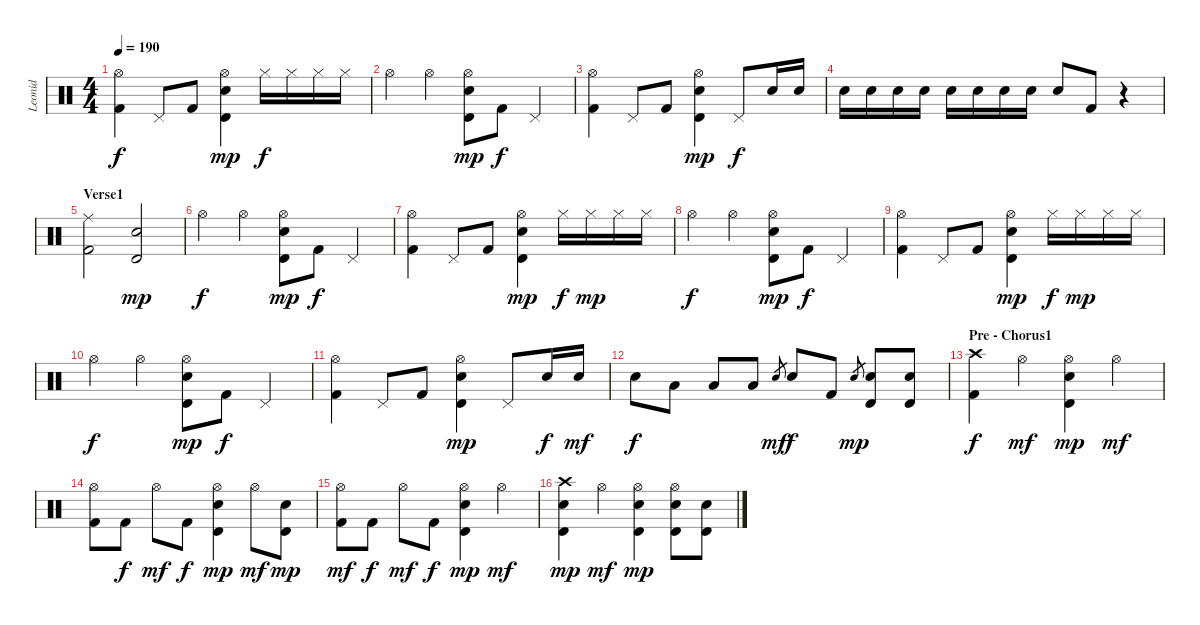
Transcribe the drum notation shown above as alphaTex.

\track ("Leonid" "Leonid") {instrument percussion}
\staff {score}
\articulation defaults
\ts (4 4)
\tempo 190
\clef neutral
\ks c
("Hi-Hat (open)" "Kick (hit) 2").4{dy f} "Pedal Hi-Hat (hit)".8 "Kick (hit) 2".8 ("Hi-Hat (open)" "Timbale high (hit)" "Electric Snare (hit)").4{dy mp} "Hi-Hat (closed)".16{dy f} "Hi-Hat (closed)".16 "Hi-Hat (closed)".16 "Hi-Hat (closed)".16 |
"Hi-Hat (open)".4 "Hi-Hat (open)".4 ("Hi-Hat (open)" "Timbale high (hit)" "Electric Snare (hit)").8{dy mp} "Kick (hit) 2".8{dy f} "Pedal Hi-Hat (hit)".4 |
("Hi-Hat (open)" "Kick (hit) 2").4 "Pedal Hi-Hat (hit)".8 "Kick (hit) 2".8 ("Hi-Hat (open)" "Timbale high (hit)" "Electric Snare (hit)").4{dy mp} "Pedal Hi-Hat (hit)".8{dy f} "Electric Snare (hit)".16 "Electric Snare (hit)".16 |
"Electric Snare (hit)".16 "Electric Snare (hit)".16 "Electric Snare (hit)".16 "Electric Snare (hit)".16 "Electric Snare (hit)".16 "Electric Snare (hit)".16 "Electric Snare (hit)".16 "Electric Snare (hit)".16 "Electric Snare (hit)".8 "Kick (hit) 2".8 r.4 |
\section ("" "Verse1")
("Ride (middle)" "Kick (hit) 2").2 ("Timbale high (hit)" "Electric Snare (hit)").2{dy mp} |
"Hi-Hat (open)".4{dy f} "Hi-Hat (open)".4 ("Hi-Hat (open)" "Timbale high (hit)" "Electric Snare (hit)").8{dy mp} "Kick (hit) 2".8{dy f} "Pedal Hi-Hat (hit)".4 |
("Hi-Hat (open)" "Kick (hit) 2").4 "Pedal Hi-Hat (hit)".8 "Kick (hit) 2".8 ("Hi-Hat (open)" "Timbale high (hit)" "Electric Snare (hit)").4{dy mp} "Hi-Hat (closed)".16{dy f} "Hi-Hat (closed)".16{dy mp} "Hi-Hat (closed)".16 "Hi-Hat (closed)".16 |
"Hi-Hat (open)".4{dy f} "Hi-Hat (open)".4 ("Hi-Hat (open)" "Timbale high (hit)" "Electric Snare (hit)").8{dy mp} "Kick (hit) 2".8{dy f} "Pedal Hi-Hat (hit)".4 |
("Hi-Hat (open)" "Kick (hit) 2").4 "Pedal Hi-Hat (hit)".8 "Kick (hit) 2".8 ("Hi-Hat (open)" "Timbale high (hit)" "Electric Snare (hit)").4{dy mp} "Hi-Hat (closed)".16{dy f} "Hi-Hat (closed)".16{dy mp} "Hi-Hat (closed)".16 "Hi-Hat (closed)".16 |
"Hi-Hat (open)".4{dy f} "Hi-Hat (open)".4 ("Hi-Hat (open)" "Timbale high (hit)" "Electric Snare (hit)").8{dy mp} "Kick (hit) 2".8{dy f} "Pedal Hi-Hat (hit)".4 |
("Hi-Hat (open)" "Kick (hit) 2").4 "Pedal Hi-Hat (hit)".8 "Kick (hit) 2".8 ("Hi-Hat (open)" "Timbale high (hit)" "Electric Snare (hit)").4{dy mp} "Pedal Hi-Hat (hit)".8 "Electric Snare (hit)".16{dy f} "Electric Snare (hit)".16{dy mf} |
"Electric Snare (hit)".8{dy f} "Low Tom (hit)".8 "Low Tom (hit)".8 "Low Tom (hit)".8 "Electric Snare (hit)".8{gr dy mf} "Electric Snare (hit)".8{dy f} "Kick (hit) 2".8 "Electric Snare (hit)".8{gr dy mp} ("Timbale high (hit)" "Electric Snare (hit)").8 ("Timbale high (hit)" "Electric Snare (hit)").8 |
\section ("" "Pre - Chorus1")
("Crash high (hit)" "Kick (hit) 2").4{dy f} "Hi-Hat (open)".4{dy mf} ("Hi-Hat (open)" "Timbale high (hit)" "Electric Snare (hit)").4{dy mp} "Hi-Hat (open)".4{dy mf} |
("Hi-Hat (open)" "Kick (hit) 2").8 "Kick (hit) 2".8{dy f} "Hi-Hat (open)".8{dy mf} "Kick (hit) 2".8{dy f} ("Hi-Hat (open)" "Timbale high (hit)" "Electric Snare (hit)").4{dy mp} "Hi-Hat (open)".8{dy mf} ("Timbale high (hit)" "Electric Snare (hit)").8{dy mp} |
("Hi-Hat (open)" "Kick (hit) 2").8{dy mf} "Kick (hit) 2".8{dy f} "Hi-Hat (open)".8{dy mf} "Kick (hit) 2".8{dy f} ("Hi-Hat (open)" "Timbale high (hit)" "Electric Snare (hit)").4{dy mp} "Hi-Hat (open)".4{dy mf} |
("Crash high (hit)" "Timbale high (hit)" "Electric Snare (hit)").4{dy mp} "Hi-Hat (open)".4{dy mf} ("Hi-Hat (open)" "Timbale high (hit)" "Electric Snare (hit)").4{dy mp} ("Hi-Hat (open)" "Timbale high (hit)" "Electric Snare (hit)").8 ("Timbale high (hit)" "Electric Snare (hit)").8
